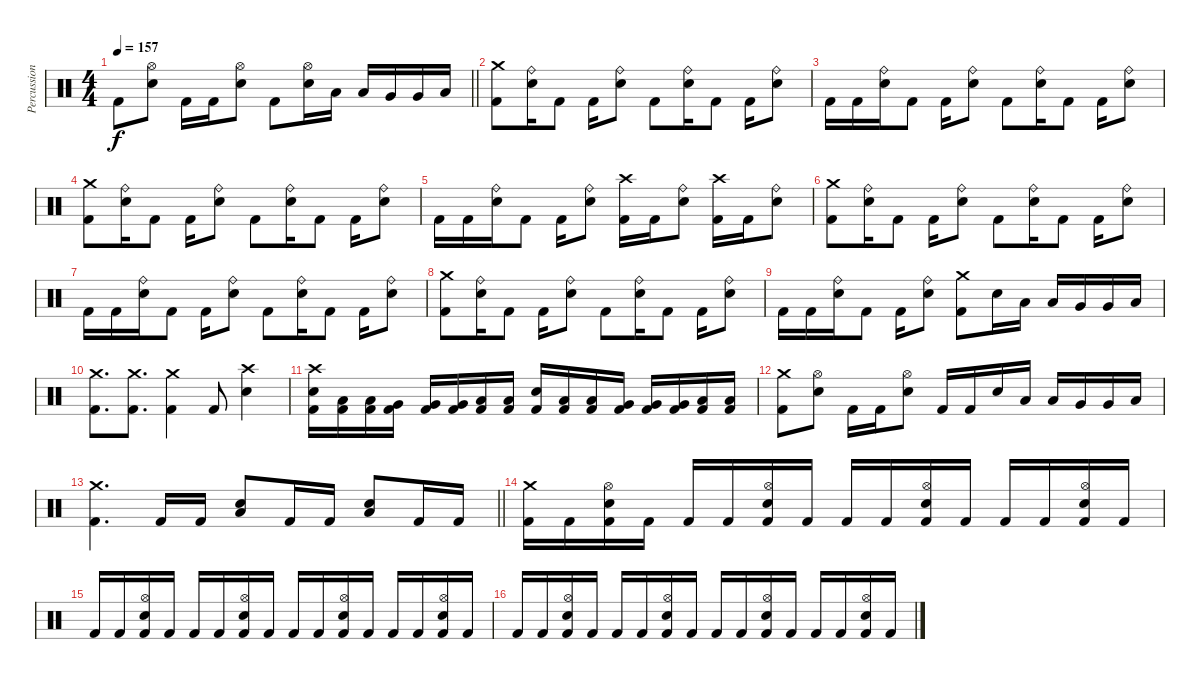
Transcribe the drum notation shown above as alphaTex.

\track ("Percussion" "Percussion") {instrument percussion}
\staff {score}
\articulation defaults
\ts (4 4)
\tempo 157
\clef neutral
\barLineRight lightlight
\ks c "Kick (hit) 2".8{dy f}
("Hi-Hat (open)" "Electric Snare (hit)").8 "Kick (hit) 2".16 "Kick (hit) 2".16 ("Hi-Hat (open)" "Electric Snare (hit)").8 "Kick (hit) 2".8 ("Hi-Hat (open)" "Electric Snare (hit)").16 "Low Tom (hit)".16 "Low Tom (hit)".16 "Very Low Tom (hit)".16 "Very Low Tom (hit)".16 "Low Floor Tom (hit)".16 |
("Crash medium (hit)" "Kick (hit) 2").8 ("Ride (bell)" "Electric Snare (hit)").16 "Kick (hit) 2".8 "Kick (hit) 2".16 ("Ride (bell)" "Electric Snare (hit)").8 "Kick (hit) 2".8 ("Ride (bell)" "Electric Snare (hit)").16 "Kick (hit) 2".8 "Kick (hit) 2".16 ("Ride (bell)" "Electric Snare (hit)").8 |
"Kick (hit) 2".16 "Kick (hit) 2".16 ("Ride (bell)" "Electric Snare (hit)").16 "Kick (hit) 2".8 "Kick (hit) 2".16 ("Ride (bell)" "Electric Snare (hit)").8 "Kick (hit) 2".8 ("Ride (bell)" "Electric Snare (hit)").16 "Kick (hit) 2".8 "Kick (hit) 2".16 ("Ride (bell)" "Electric Snare (hit)").8 |
("Crash medium (hit)" "Kick (hit) 2").8 ("Ride (bell)" "Electric Snare (hit)").16 "Kick (hit) 2".8 "Kick (hit) 2".16 ("Ride (bell)" "Electric Snare (hit)").8 "Kick (hit) 2".8 ("Ride (bell)" "Electric Snare (hit)").16 "Kick (hit) 2".8 "Kick (hit) 2".16 ("Ride (bell)" "Electric Snare (hit)").8 |
"Kick (hit) 2".16 "Kick (hit) 2".16 ("Ride (bell)" "Electric Snare (hit)").16 "Kick (hit) 2".8 "Kick (hit) 2".16 ("Ride (bell)" "Electric Snare (hit)").8 ("Crash high (hit)" "Kick (hit) 2").16 "Kick (hit) 2".16 ("Ride (bell)" "Electric Snare (hit)").8 ("Crash high (hit)" "Kick (hit) 2").16 "Kick (hit) 2".16 ("Ride (bell)" "Electric Snare (hit)").8 |
("Crash medium (hit)" "Kick (hit) 2").8 ("Ride (bell)" "Electric Snare (hit)").16 "Kick (hit) 2".8 "Kick (hit) 2".16 ("Ride (bell)" "Electric Snare (hit)").8 "Kick (hit) 2".8 ("Ride (bell)" "Electric Snare (hit)").16 "Kick (hit) 2".8 "Kick (hit) 2".16 ("Ride (bell)" "Electric Snare (hit)").8 |
"Kick (hit) 2".16 "Kick (hit) 2".16 ("Ride (bell)" "Electric Snare (hit)").16 "Kick (hit) 2".8 "Kick (hit) 2".16 ("Ride (bell)" "Electric Snare (hit)").8 "Kick (hit) 2".8 ("Ride (bell)" "Electric Snare (hit)").16 "Kick (hit) 2".8 "Kick (hit) 2".16 ("Ride (bell)" "Electric Snare (hit)").8 |
("Crash medium (hit)" "Kick (hit) 2").8 ("Ride (bell)" "Electric Snare (hit)").16 "Kick (hit) 2".8 "Kick (hit) 2".16 ("Ride (bell)" "Electric Snare (hit)").8 "Kick (hit) 2".8 ("Ride (bell)" "Electric Snare (hit)").16 "Kick (hit) 2".8 "Kick (hit) 2".16 ("Ride (bell)" "Electric Snare (hit)").8 |
"Kick (hit) 2".16 "Kick (hit) 2".16 ("Ride (bell)" "Electric Snare (hit)").16 "Kick (hit) 2".8 "Kick (hit) 2".16 ("Ride (bell)" "Electric Snare (hit)").8 ("Crash medium (hit)" "Kick (hit) 2").8 "Electric Snare (hit)".16 "Low Tom (hit)".16 "Low Tom (hit)".16 "Very Low Tom (hit)".16 "Very Low Tom (hit)".16 "Low Floor Tom (hit)".16 |
("Crash medium (hit)" "Kick (hit) 2").8{d} ("Crash medium (hit)" "Kick (hit) 2").8{d} ("Crash medium (hit)" "Kick (hit) 2").4 "Kick (hit) 2".8 ("Crash high (hit)" "Electric Snare (hit)").4 |
("Crash high (hit)" "Electric Snare (hit)" "Kick (hit) 2").16 ("Low Tom (hit)" "Kick (hit) 2").16 ("Low Tom (hit)" "Kick (hit) 2").16 ("Very Low Tom (hit)" "Kick (hit) 2").16 ("Very Low Tom (hit)" "Kick (hit) 2").16 ("Very Low Tom (hit)" "Kick (hit) 2").16 ("Low Floor Tom (hit)" "Kick (hit) 2").16 ("Low Floor Tom (hit)" "Kick (hit) 2").16 ("Electric Snare (hit)" "Kick (hit) 2").16 ("Low Tom (hit)" "Kick (hit) 2").16 ("Low Tom (hit)" "Kick (hit) 2").16 ("Very Low Tom (hit)" "Kick (hit) 2").16 ("Very Low Tom (hit)" "Kick (hit) 2").16 ("Very Low Tom (hit)" "Kick (hit) 2").16 ("Low Floor Tom (hit)" "Kick (hit) 2").16 ("Low Floor Tom (hit)" "Kick (hit) 2").16 |
("Crash medium (hit)" "Kick (hit) 2").8 ("Hi-Hat (open)" "Electric Snare (hit)").8 "Kick (hit) 2".16 "Kick (hit) 2".16 ("Hi-Hat (open)" "Electric Snare (hit)").8 "Kick (hit) 2".16 "Kick (hit) 2".16 "Electric Snare (hit)".16 "Low Tom (hit)".16 "Low Tom (hit)".16 "Very Low Tom (hit)".16 "Very Low Tom (hit)".16 "Low Floor Tom (hit)".16 |
\barLineRight lightlight
("Crash medium (hit)" "Kick (hit) 2").4{d} "Kick (hit) 2".16 "Kick (hit) 2".16 ("Low Floor Tom (hit)" "Electric Snare (hit)").8 "Kick (hit) 2".16 "Kick (hit) 2".16 ("Low Floor Tom (hit)" "Electric Snare (hit)").8 "Kick (hit) 2".16 "Kick (hit) 2".16 |
("Crash medium (hit)" "Kick (hit) 2").16 "Kick (hit) 2".16 ("Hi-Hat (open)" "Electric Snare (hit)" "Kick (hit) 2").16 "Kick (hit) 2".16 "Kick (hit) 2".16 "Kick (hit) 2".16 ("Hi-Hat (open)" "Electric Snare (hit)" "Kick (hit) 2").16 "Kick (hit) 2".16 "Kick (hit) 2".16 "Kick (hit) 2".16 ("Hi-Hat (open)" "Electric Snare (hit)" "Kick (hit) 2").16 "Kick (hit) 2".16 "Kick (hit) 2".16 "Kick (hit) 2".16 ("Hi-Hat (open)" "Electric Snare (hit)" "Kick (hit) 2").16 "Kick (hit) 2".16 |
"Kick (hit) 2".16 "Kick (hit) 2".16 ("Hi-Hat (open)" "Electric Snare (hit)" "Kick (hit) 2").16 "Kick (hit) 2".16 "Kick (hit) 2".16 "Kick (hit) 2".16 ("Hi-Hat (open)" "Electric Snare (hit)" "Kick (hit) 2").16 "Kick (hit) 2".16 "Kick (hit) 2".16 "Kick (hit) 2".16 ("Hi-Hat (open)" "Electric Snare (hit)" "Kick (hit) 2").16 "Kick (hit) 2".16 "Kick (hit) 2".16 "Kick (hit) 2".16 ("Hi-Hat (open)" "Electric Snare (hit)" "Kick (hit) 2").16 "Kick (hit) 2".16 |
"Kick (hit) 2".16 "Kick (hit) 2".16 ("Hi-Hat (open)" "Electric Snare (hit)" "Kick (hit) 2").16 "Kick (hit) 2".16 "Kick (hit) 2".16 "Kick (hit) 2".16 ("Hi-Hat (open)" "Electric Snare (hit)" "Kick (hit) 2").16 "Kick (hit) 2".16 "Kick (hit) 2".16 "Kick (hit) 2".16 ("Hi-Hat (open)" "Electric Snare (hit)" "Kick (hit) 2").16 "Kick (hit) 2".16 "Kick (hit) 2".16 "Kick (hit) 2".16 ("Hi-Hat (open)" "Electric Snare (hit)" "Kick (hit) 2").16 "Kick (hit) 2".16
